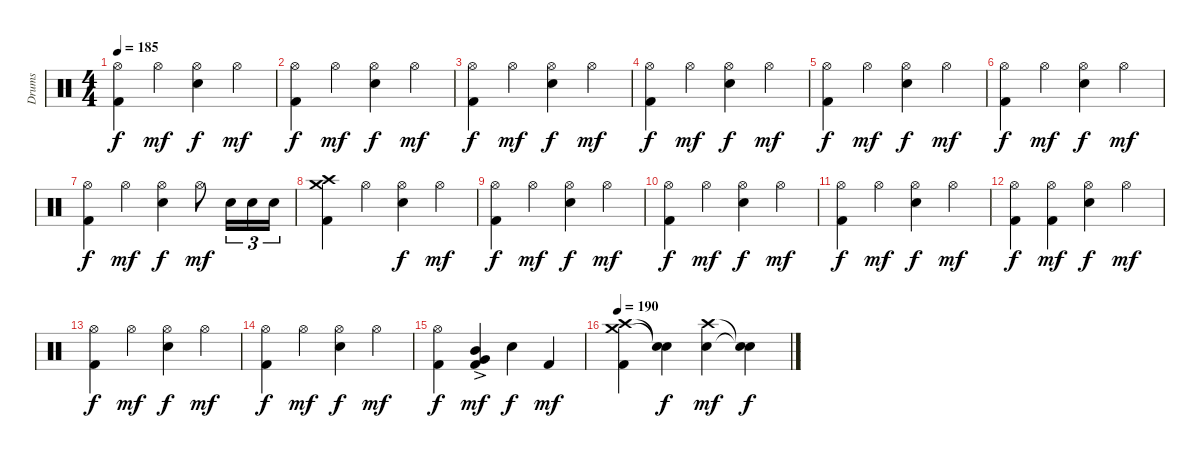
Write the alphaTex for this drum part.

\track ("Drums" "Drums") {instrument percussion}
\staff {score}
\articulation defaults
\ts (4 4)
\tempo 185
\clef neutral
\ks c
("Hi-Hat (open)" "Kick (hit) 2").4{dy f} "Hi-Hat (open)".4{dy mf} ("Hi-Hat (open)" "Snare (hit) 2").4{dy f} "Hi-Hat (open)".4{dy mf} |
("Hi-Hat (open)" "Kick (hit) 2").4{dy f} "Hi-Hat (open)".4{dy mf} ("Hi-Hat (open)" "Snare (hit) 2").4{dy f} "Hi-Hat (open)".4{dy mf} |
("Hi-Hat (open)" "Kick (hit) 2").4{dy f} "Hi-Hat (open)".4{dy mf} ("Hi-Hat (open)" "Snare (hit) 2").4{dy f} "Hi-Hat (open)".4{dy mf} |
("Hi-Hat (open)" "Kick (hit) 2").4{dy f} "Hi-Hat (open)".4{dy mf} ("Hi-Hat (open)" "Snare (hit) 2").4{dy f} "Hi-Hat (open)".4{dy mf} |
("Hi-Hat (open)" "Kick (hit) 2").4{dy f} "Hi-Hat (open)".4{dy mf} ("Hi-Hat (open)" "Snare (hit) 2").4{dy f} "Hi-Hat (open)".4{dy mf} |
("Hi-Hat (open)" "Kick (hit) 2").4{dy f} "Hi-Hat (open)".4{dy mf} ("Hi-Hat (open)" "Snare (hit) 2").4{dy f} "Hi-Hat (open)".4{dy mf} |
("Hi-Hat (open)" "Kick (hit) 2").4{dy f} "Hi-Hat (open)".4{dy mf} ("Hi-Hat (open)" "Snare (hit) 2").4{dy f} "Hi-Hat (open)".8{dy mf} "Snare (hit) 2".16{tu (3 2)} "Snare (hit) 2".16{tu (3 2)} "Snare (hit) 2".16{tu (3 2)} |
("Crash high (hit)" "Crash medium (hit)" "Kick (hit) 2").4 "Hi-Hat (open)".4 ("Hi-Hat (open)" "Snare (hit) 2").4{dy f} "Hi-Hat (open)".4{dy mf} |
("Hi-Hat (open)" "Kick (hit) 2").4{dy f} "Hi-Hat (open)".4{dy mf} ("Hi-Hat (open)" "Snare (hit) 2").4{dy f} "Hi-Hat (open)".4{dy mf} |
("Hi-Hat (open)" "Kick (hit) 2").4{dy f} "Hi-Hat (open)".4{dy mf} ("Hi-Hat (open)" "Snare (hit) 2").4{dy f} "Hi-Hat (open)".4{dy mf} |
("Hi-Hat (open)" "Kick (hit) 2").4{dy f} "Hi-Hat (open)".4{dy mf} ("Hi-Hat (open)" "Snare (hit) 2").4{dy f} "Hi-Hat (open)".4{dy mf} |
("Hi-Hat (open)" "Kick (hit) 2").4{dy f} ("Hi-Hat (open)" "Kick (hit) 2").4{dy mf} ("Hi-Hat (open)" "Snare (hit) 2").4{dy f} "Hi-Hat (open)".4{dy mf} |
("Hi-Hat (open)" "Kick (hit) 2").4{dy f} "Hi-Hat (open)".4{dy mf} ("Hi-Hat (open)" "Snare (hit) 2").4{dy f} "Hi-Hat (open)".4{dy mf} |
("Hi-Hat (open)" "Kick (hit) 2").4{dy f} "Hi-Hat (open)".4{dy mf} ("Hi-Hat (open)" "Snare (hit) 2").4{dy f} "Hi-Hat (open)".4{dy mf} |
("Hi-Hat (open)" "Kick (hit) 2").4{dy f} ("Very Low Tom (hit)"{ac} "Kick (hit) 2" "Mid Tom (hit)"{ac}).4{dy mf} "Snare (hit) 2".4{dy f} "Kick (hit) 2".4{dy mf} |
\tempo 190
("Crash high (hit)" "Crash medium (hit)" "Kick (hit) 2").4 ("Snare (hit) 2"{t} "Snare (hit)"{t}).4{dy f} ("Crash high (hit)" "Snare (hit) 2").4{dy mf} ("Snare (hit)"{t} "Snare (hit)"{t}).4{dy f}
